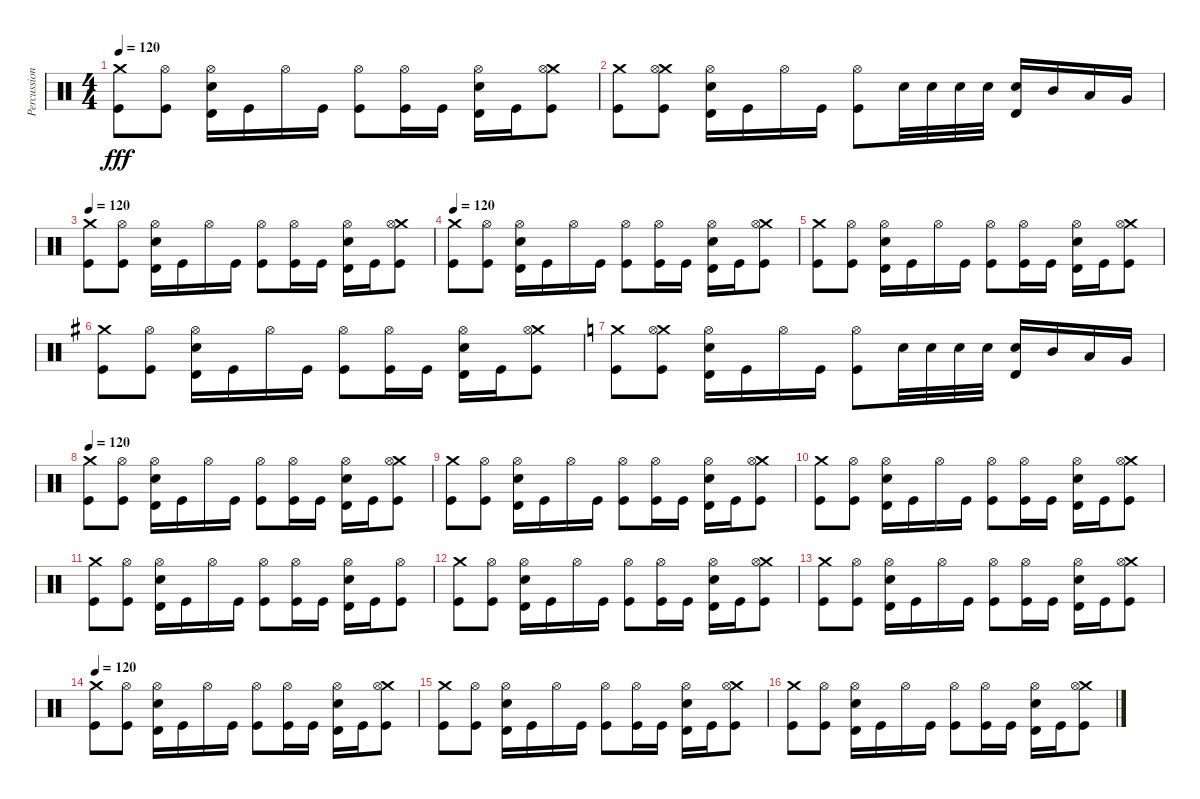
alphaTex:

\track ("Percussion" "Percussion") {instrument percussion}
\staff {score}
\articulation defaults
\ts (4 4)
\tempo 120
\clef neutral
\ks c
("Crash medium (hit)" "Kick (hit)").8{dy fff} ("Hi-Hat (open)" "Kick (hit)").8 ("Hi-Hat (open)" "Electric Snare (hit)" "Timbale high (hit)").16 "Kick (hit)".16 "Hi-Hat (open)".16 "Kick (hit)".16 ("Hi-Hat (open)" "Kick (hit)").8 ("Hi-Hat (open)" "Kick (hit)").16 "Kick (hit)".16 ("Hi-Hat (open)" "Electric Snare (hit)" "Timbale high (hit)").16 "Kick (hit)".16 ("Crash medium (hit)" "Hi-Hat (open)" "Kick (hit)").8 |
("Crash medium (hit)" "Kick (hit)").8 ("Crash medium (hit)" "Hi-Hat (open)" "Kick (hit)").8 ("Hi-Hat (open)" "Electric Snare (hit)" "Timbale high (hit)").16 "Kick (hit)".16 "Hi-Hat (open)".16 "Kick (hit)".16 ("Hi-Hat (open)" "Kick (hit)").8 "Electric Snare (hit)".32 "Electric Snare (hit)".32 "Electric Snare (hit)".32 "Electric Snare (hit)".32 ("Electric Snare (hit)" "Timbale high (hit)").16 "Mid Tom (hit)".16 "Low Tom (hit)".16 "Very Low Tom (hit)".16 |
\tempo 120
("Crash medium (hit)" "Kick (hit)").8 ("Hi-Hat (open)" "Kick (hit)").8 ("Hi-Hat (open)" "Electric Snare (hit)" "Timbale high (hit)").16 "Kick (hit)".16 "Hi-Hat (open)".16 "Kick (hit)".16 ("Hi-Hat (open)" "Kick (hit)").8 ("Hi-Hat (open)" "Kick (hit)").16 "Kick (hit)".16 ("Hi-Hat (open)" "Electric Snare (hit)" "Timbale high (hit)").16 "Kick (hit)".16 ("Crash medium (hit)" "Hi-Hat (open)" "Kick (hit)").8 |
\tempo 120
("Crash medium (hit)" "Kick (hit)").8 ("Hi-Hat (open)" "Kick (hit)").8 ("Hi-Hat (open)" "Electric Snare (hit)" "Timbale high (hit)").16 "Kick (hit)".16 "Hi-Hat (open)".16 "Kick (hit)".16 ("Hi-Hat (open)" "Kick (hit)").8 ("Hi-Hat (open)" "Kick (hit)").16 "Kick (hit)".16 ("Hi-Hat (open)" "Electric Snare (hit)" "Timbale high (hit)").16 "Kick (hit)".16 ("Crash medium (hit)" "Hi-Hat (open)" "Kick (hit)").8 |
("Crash medium (hit)" "Kick (hit)").8 ("Hi-Hat (open)" "Kick (hit)").8 ("Hi-Hat (open)" "Electric Snare (hit)" "Timbale high (hit)").16 "Kick (hit)".16 "Hi-Hat (open)".16 "Kick (hit)".16 ("Hi-Hat (open)" "Kick (hit)").8 ("Hi-Hat (open)" "Kick (hit)").16 "Kick (hit)".16 ("Hi-Hat (open)" "Electric Snare (hit)" "Timbale high (hit)").16 "Kick (hit)".16 ("Crash medium (hit)" "Hi-Hat (open)" "Kick (hit)").8 |
\ks g
("Crash medium (hit)" "Kick (hit)").8 ("Hi-Hat (open)" "Kick (hit)").8 ("Hi-Hat (open)" "Electric Snare (hit)" "Timbale high (hit)").16 "Kick (hit)".16 "Hi-Hat (open)".16 "Kick (hit)".16 ("Hi-Hat (open)" "Kick (hit)").8 ("Hi-Hat (open)" "Kick (hit)").16 "Kick (hit)".16 ("Hi-Hat (open)" "Electric Snare (hit)" "Timbale high (hit)").16 "Kick (hit)".16 ("Crash medium (hit)" "Hi-Hat (open)" "Kick (hit)").8 |
\ks c
("Crash medium (hit)" "Kick (hit)").8 ("Crash medium (hit)" "Hi-Hat (open)" "Kick (hit)").8 ("Hi-Hat (open)" "Electric Snare (hit)" "Timbale high (hit)").16 "Kick (hit)".16 "Hi-Hat (open)".16 "Kick (hit)".16 ("Hi-Hat (open)" "Kick (hit)").8 "Electric Snare (hit)".32 "Electric Snare (hit)".32 "Electric Snare (hit)".32 "Electric Snare (hit)".32 ("Electric Snare (hit)" "Timbale high (hit)").16 "Mid Tom (hit)".16 "Low Tom (hit)".16 "Very Low Tom (hit)".16 |
\tempo 120
("Crash medium (hit)" "Kick (hit)").8 ("Hi-Hat (open)" "Kick (hit)").8 ("Hi-Hat (open)" "Electric Snare (hit)" "Timbale high (hit)").16 "Kick (hit)".16 "Hi-Hat (open)".16 "Kick (hit)".16 ("Hi-Hat (open)" "Kick (hit)").8 ("Hi-Hat (open)" "Kick (hit)").16 "Kick (hit)".16 ("Hi-Hat (open)" "Electric Snare (hit)" "Timbale high (hit)").16 "Kick (hit)".16 ("Crash medium (hit)" "Hi-Hat (open)" "Kick (hit)").8 |
("Crash medium (hit)" "Kick (hit)").8 ("Hi-Hat (open)" "Kick (hit)").8 ("Hi-Hat (open)" "Electric Snare (hit)" "Timbale high (hit)").16 "Kick (hit)".16 "Hi-Hat (open)".16 "Kick (hit)".16 ("Hi-Hat (open)" "Kick (hit)").8 ("Hi-Hat (open)" "Kick (hit)").16 "Kick (hit)".16 ("Hi-Hat (open)" "Electric Snare (hit)" "Timbale high (hit)").16 "Kick (hit)".16 ("Crash medium (hit)" "Hi-Hat (open)" "Kick (hit)").8 |
("Crash medium (hit)" "Kick (hit)").8 ("Hi-Hat (open)" "Kick (hit)").8 ("Hi-Hat (open)" "Electric Snare (hit)" "Timbale high (hit)").16 "Kick (hit)".16 "Hi-Hat (open)".16 "Kick (hit)".16 ("Hi-Hat (open)" "Kick (hit)").8 ("Hi-Hat (open)" "Kick (hit)").16 "Kick (hit)".16 ("Hi-Hat (open)" "Electric Snare (hit)" "Timbale high (hit)").16 "Kick (hit)".16 ("Crash medium (hit)" "Hi-Hat (open)" "Kick (hit)").8 |
("Crash medium (hit)" "Kick (hit)").8 ("Hi-Hat (open)" "Kick (hit)").8 ("Hi-Hat (open)" "Electric Snare (hit)" "Timbale high (hit)").16 "Kick (hit)".16 "Hi-Hat (open)".16 "Kick (hit)".16 ("Hi-Hat (open)" "Kick (hit)").8 ("Hi-Hat (open)" "Kick (hit)").16 "Kick (hit)".16 ("Hi-Hat (open)" "Electric Snare (hit)" "Timbale high (hit)").16 "Kick (hit)".16 ("Hi-Hat (open)" "Kick (hit)").8 |
("Crash medium (hit)" "Kick (hit)").8 ("Hi-Hat (open)" "Kick (hit)").8 ("Hi-Hat (open)" "Electric Snare (hit)" "Timbale high (hit)").16 "Kick (hit)".16 "Hi-Hat (open)".16 "Kick (hit)".16 ("Hi-Hat (open)" "Kick (hit)").8 ("Hi-Hat (open)" "Kick (hit)").16 "Kick (hit)".16 ("Hi-Hat (open)" "Electric Snare (hit)" "Timbale high (hit)").16 "Kick (hit)".16 ("Crash medium (hit)" "Hi-Hat (open)" "Kick (hit)").8 |
("Crash medium (hit)" "Kick (hit)").8 ("Hi-Hat (open)" "Kick (hit)").8 ("Hi-Hat (open)" "Electric Snare (hit)" "Timbale high (hit)").16 "Kick (hit)".16 "Hi-Hat (open)".16 "Kick (hit)".16 ("Hi-Hat (open)" "Kick (hit)").8 ("Hi-Hat (open)" "Kick (hit)").16 "Kick (hit)".16 ("Hi-Hat (open)" "Electric Snare (hit)" "Timbale high (hit)").16 "Kick (hit)".16 ("Crash medium (hit)" "Hi-Hat (open)" "Kick (hit)").8 |
\tempo 120
("Crash medium (hit)" "Kick (hit)").8 ("Hi-Hat (open)" "Kick (hit)").8 ("Hi-Hat (open)" "Electric Snare (hit)" "Timbale high (hit)").16 "Kick (hit)".16 "Hi-Hat (open)".16 "Kick (hit)".16 ("Hi-Hat (open)" "Kick (hit)").8 ("Hi-Hat (open)" "Kick (hit)").16 "Kick (hit)".16 ("Hi-Hat (open)" "Electric Snare (hit)" "Timbale high (hit)").16 "Kick (hit)".16 ("Crash medium (hit)" "Hi-Hat (open)" "Kick (hit)").8 |
("Crash medium (hit)" "Kick (hit)").8 ("Hi-Hat (open)" "Kick (hit)").8 ("Hi-Hat (open)" "Electric Snare (hit)" "Timbale high (hit)").16 "Kick (hit)".16 "Hi-Hat (open)".16 "Kick (hit)".16 ("Hi-Hat (open)" "Kick (hit)").8 ("Hi-Hat (open)" "Kick (hit)").16 "Kick (hit)".16 ("Hi-Hat (open)" "Electric Snare (hit)" "Timbale high (hit)").16 "Kick (hit)".16 ("Crash medium (hit)" "Hi-Hat (open)" "Kick (hit)").8 |
("Crash medium (hit)" "Kick (hit)").8 ("Hi-Hat (open)" "Kick (hit)").8 ("Hi-Hat (open)" "Electric Snare (hit)" "Timbale high (hit)").16 "Kick (hit)".16 "Hi-Hat (open)".16 "Kick (hit)".16 ("Hi-Hat (open)" "Kick (hit)").8 ("Hi-Hat (open)" "Kick (hit)").16 "Kick (hit)".16 ("Hi-Hat (open)" "Electric Snare (hit)" "Timbale high (hit)").16 "Kick (hit)".16 ("Crash medium (hit)" "Hi-Hat (open)" "Kick (hit)").8
